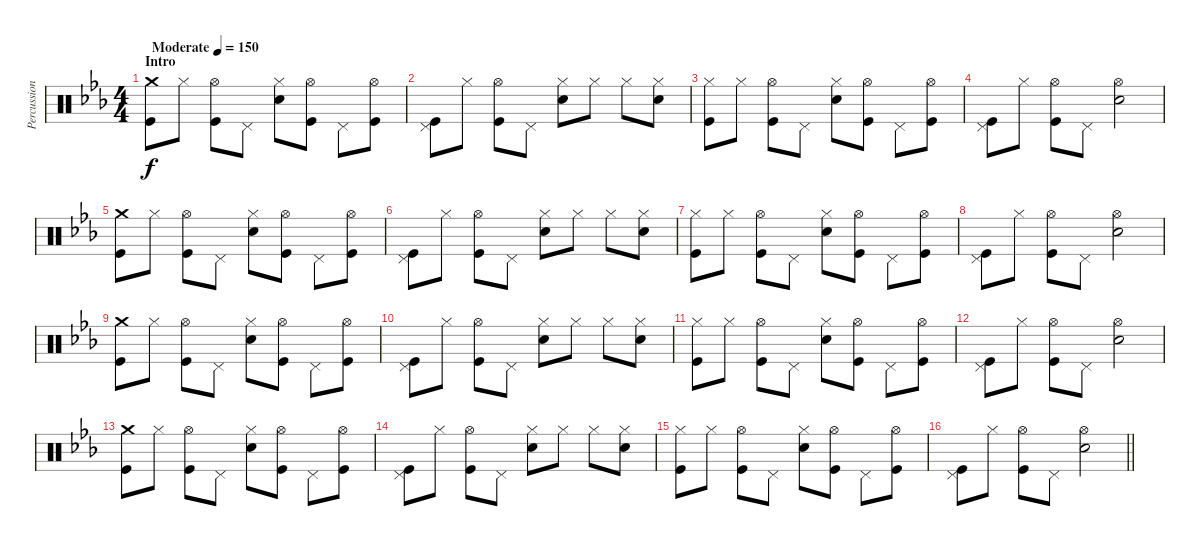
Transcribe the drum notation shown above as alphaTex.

\track ("Percussion" "Percussion") {instrument percussion}
\staff {score}
\articulation defaults
\ts (4 4)
\section ("" "Intro")
\tempo (150 "Moderate")
\clef neutral
\ks eb
("Crash medium (hit)" "Kick (hit)").8{dy f} "Hi-Hat (closed)".8 ("Hi-Hat (open)" "Kick (hit)").8 "Pedal Hi-Hat (hit)".8 ("Hi-Hat (closed)" "Electric Snare (hit)").8 ("Hi-Hat (open)" "Kick (hit)").8 "Pedal Hi-Hat (hit)".8 ("Hi-Hat (open)" "Kick (hit)").8 |
("Pedal Hi-Hat (hit)" "Kick (hit)").8 "Hi-Hat (closed)".8 ("Hi-Hat (open)" "Kick (hit)").8 "Pedal Hi-Hat (hit)".8 ("Hi-Hat (closed)" "Electric Snare (hit)").8 "Hi-Hat (closed)".8 "Hi-Hat (closed)".8 ("Hi-Hat (closed)" "Electric Snare (hit)").8 |
("Hi-Hat (closed)" "Kick (hit)").8 "Hi-Hat (closed)".8 ("Hi-Hat (open)" "Kick (hit)").8 "Pedal Hi-Hat (hit)".8 ("Hi-Hat (closed)" "Electric Snare (hit)").8 ("Hi-Hat (open)" "Kick (hit)").8 "Pedal Hi-Hat (hit)".8 ("Hi-Hat (open)" "Kick (hit)").8 |
("Pedal Hi-Hat (hit)" "Kick (hit)").8 "Hi-Hat (closed)".8 ("Hi-Hat (open)" "Kick (hit)").8 "Pedal Hi-Hat (hit)".8 ("Hi-Hat (open)" "Electric Snare (hit)").2 |
("Crash medium (hit)" "Kick (hit)").8 "Hi-Hat (closed)".8 ("Hi-Hat (open)" "Kick (hit)").8 "Pedal Hi-Hat (hit)".8 ("Hi-Hat (closed)" "Electric Snare (hit)").8 ("Hi-Hat (open)" "Kick (hit)").8 "Pedal Hi-Hat (hit)".8 ("Hi-Hat (open)" "Kick (hit)").8 |
("Pedal Hi-Hat (hit)" "Kick (hit)").8 "Hi-Hat (closed)".8 ("Hi-Hat (open)" "Kick (hit)").8 "Pedal Hi-Hat (hit)".8 ("Hi-Hat (closed)" "Electric Snare (hit)").8 "Hi-Hat (closed)".8 "Hi-Hat (closed)".8 ("Hi-Hat (closed)" "Electric Snare (hit)").8 |
("Hi-Hat (closed)" "Kick (hit)").8 "Hi-Hat (closed)".8 ("Hi-Hat (open)" "Kick (hit)").8 "Pedal Hi-Hat (hit)".8 ("Hi-Hat (closed)" "Electric Snare (hit)").8 ("Hi-Hat (open)" "Kick (hit)").8 "Pedal Hi-Hat (hit)".8 ("Hi-Hat (open)" "Kick (hit)").8 |
("Pedal Hi-Hat (hit)" "Kick (hit)").8 "Hi-Hat (closed)".8 ("Hi-Hat (open)" "Kick (hit)").8 "Pedal Hi-Hat (hit)".8 ("Hi-Hat (open)" "Electric Snare (hit)").2 |
("Crash medium (hit)" "Kick (hit)").8 "Hi-Hat (closed)".8 ("Hi-Hat (open)" "Kick (hit)").8 "Pedal Hi-Hat (hit)".8 ("Hi-Hat (closed)" "Electric Snare (hit)").8 ("Hi-Hat (open)" "Kick (hit)").8 "Pedal Hi-Hat (hit)".8 ("Hi-Hat (open)" "Kick (hit)").8 |
("Pedal Hi-Hat (hit)" "Kick (hit)").8 "Hi-Hat (closed)".8 ("Hi-Hat (open)" "Kick (hit)").8 "Pedal Hi-Hat (hit)".8 ("Hi-Hat (closed)" "Electric Snare (hit)").8 "Hi-Hat (closed)".8 "Hi-Hat (closed)".8 ("Hi-Hat (closed)" "Electric Snare (hit)").8 |
("Hi-Hat (closed)" "Kick (hit)").8 "Hi-Hat (closed)".8 ("Hi-Hat (open)" "Kick (hit)").8 "Pedal Hi-Hat (hit)".8 ("Hi-Hat (closed)" "Electric Snare (hit)").8 ("Hi-Hat (open)" "Kick (hit)").8 "Pedal Hi-Hat (hit)".8 ("Hi-Hat (open)" "Kick (hit)").8 |
("Pedal Hi-Hat (hit)" "Kick (hit)").8 "Hi-Hat (closed)".8 ("Hi-Hat (open)" "Kick (hit)").8 "Pedal Hi-Hat (hit)".8 ("Hi-Hat (open)" "Electric Snare (hit)").2 |
("Crash medium (hit)" "Kick (hit)").8 "Hi-Hat (closed)".8 ("Hi-Hat (open)" "Kick (hit)").8 "Pedal Hi-Hat (hit)".8 ("Hi-Hat (closed)" "Electric Snare (hit)").8 ("Hi-Hat (open)" "Kick (hit)").8 "Pedal Hi-Hat (hit)".8 ("Hi-Hat (open)" "Kick (hit)").8 |
("Pedal Hi-Hat (hit)" "Kick (hit)").8 "Hi-Hat (closed)".8 ("Hi-Hat (open)" "Kick (hit)").8 "Pedal Hi-Hat (hit)".8 ("Hi-Hat (closed)" "Electric Snare (hit)").8 "Hi-Hat (closed)".8 "Hi-Hat (closed)".8 ("Hi-Hat (closed)" "Electric Snare (hit)").8 |
("Hi-Hat (closed)" "Kick (hit)").8 "Hi-Hat (closed)".8 ("Hi-Hat (open)" "Kick (hit)").8 "Pedal Hi-Hat (hit)".8 ("Hi-Hat (closed)" "Electric Snare (hit)").8 ("Hi-Hat (open)" "Kick (hit)").8 "Pedal Hi-Hat (hit)".8 ("Hi-Hat (open)" "Kick (hit)").8 |
\barLineRight lightlight
("Pedal Hi-Hat (hit)" "Kick (hit)").8 "Hi-Hat (closed)".8 ("Hi-Hat (open)" "Kick (hit)").8 "Pedal Hi-Hat (hit)".8 ("Hi-Hat (open)" "Electric Snare (hit)").2
